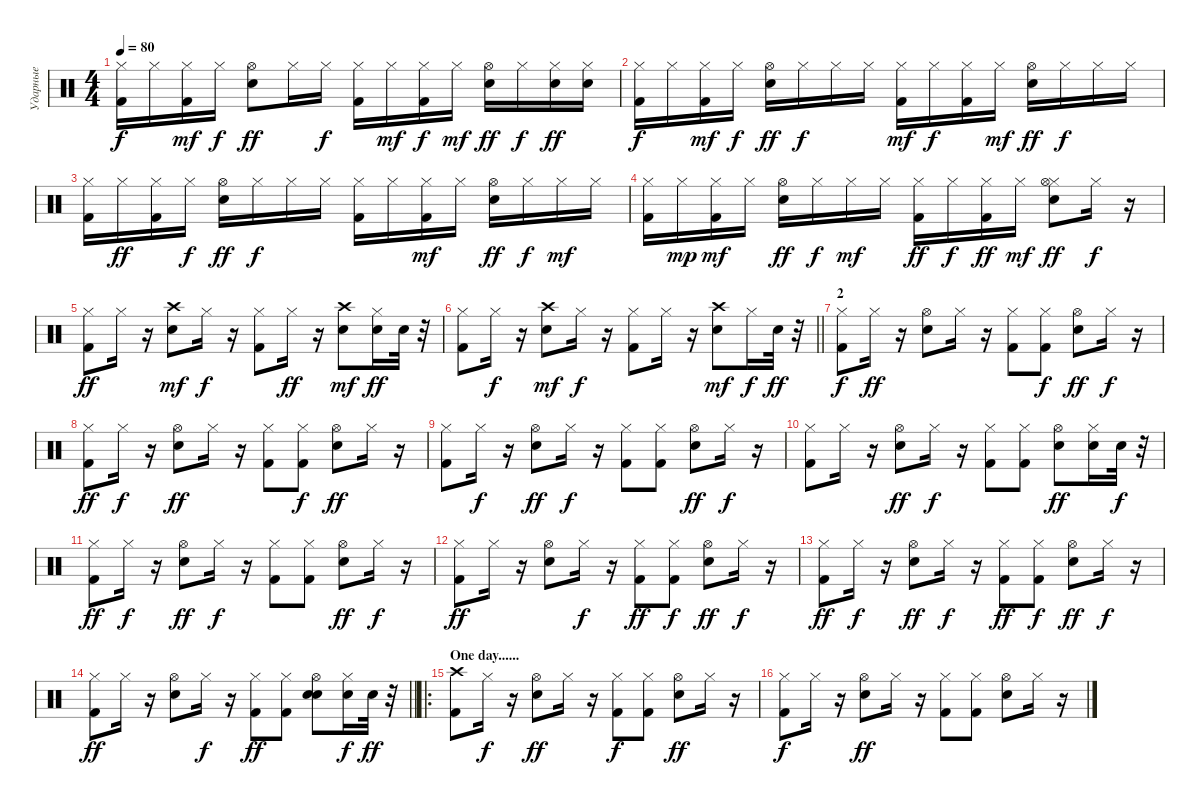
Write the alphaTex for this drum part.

\track ("Ударные" "Ударные") {instrument percussion}
\staff {score}
\articulation defaults
\ts (4 4)
\tempo 80
\clef neutral
\ks c
("Kick (hit) 2" "Hi-Hat (closed)").16{dy f} "Hi-Hat (closed)".16 ("Kick (hit) 2" "Hi-Hat (closed)").16{dy mf} "Hi-Hat (closed)".16{dy f} ("Electric Snare (hit)" "Hi-Hat (open)").8{dy ff} "Hi-Hat (closed)".16 "Hi-Hat (closed)".16{dy f} ("Kick (hit) 2" "Hi-Hat (closed)").16 "Hi-Hat (closed)".16{dy mf} ("Kick (hit) 2" "Hi-Hat (closed)").16{dy f} "Hi-Hat (closed)".16{dy mf} ("Electric Snare (hit)" "Hi-Hat (open)").16{dy ff} "Hi-Hat (closed)".16{dy f} ("Hi-Hat (closed)" "Electric Snare (hit)").16{dy ff} ("Hi-Hat (closed)" "Electric Snare (hit)").16 |
("Kick (hit) 2" "Hi-Hat (closed)").16{dy f} "Hi-Hat (closed)".16 ("Kick (hit) 2" "Hi-Hat (closed)").16{dy mf} "Hi-Hat (closed)".16{dy f} ("Electric Snare (hit)" "Hi-Hat (open)").16{dy ff} "Hi-Hat (closed)".16{dy f} "Hi-Hat (closed)".16 "Hi-Hat (closed)".16 ("Kick (hit) 2" "Hi-Hat (closed)").16{dy mf} "Hi-Hat (closed)".16{dy f} ("Kick (hit) 2" "Hi-Hat (closed)").16 "Hi-Hat (closed)".16{dy mf} ("Electric Snare (hit)" "Hi-Hat (open)").16{dy ff} "Hi-Hat (closed)".16{dy f} "Hi-Hat (closed)".16 "Hi-Hat (closed)".16 |
("Kick (hit) 2" "Hi-Hat (closed)").16 "Hi-Hat (closed)".16{dy ff} ("Kick (hit) 2" "Hi-Hat (closed)").16 "Hi-Hat (closed)".16{dy f} ("Electric Snare (hit)" "Hi-Hat (open)").16{dy ff} "Hi-Hat (closed)".16{dy f} "Hi-Hat (closed)".16 "Hi-Hat (closed)".16 ("Kick (hit) 2" "Hi-Hat (closed)").16 "Hi-Hat (closed)".16 ("Kick (hit) 2" "Hi-Hat (closed)").16{dy mf} "Hi-Hat (closed)".16 ("Electric Snare (hit)" "Hi-Hat (open)").16{dy ff} "Hi-Hat (closed)".16{dy f} "Hi-Hat (closed)".16{dy mf} "Hi-Hat (closed)".16 |
("Kick (hit) 2" "Hi-Hat (closed)").16 "Hi-Hat (closed)".16{dy mp} ("Kick (hit) 2" "Hi-Hat (closed)").16{dy mf} "Hi-Hat (closed)".16 ("Electric Snare (hit)" "Hi-Hat (open)").16{dy ff} "Hi-Hat (closed)".16{dy f} "Hi-Hat (closed)".16{dy mf} "Hi-Hat (closed)".16 ("Kick (hit) 2" "Hi-Hat (closed)").16{dy ff} "Hi-Hat (closed)".16{dy f} ("Kick (hit) 2" "Hi-Hat (closed)").16{dy ff} "Hi-Hat (closed)".16{dy mf} ("Electric Snare (hit)" "Hi-Hat (closed)" "Hi-Hat (open)").8{dy ff} "Hi-Hat (closed)".16{dy f} r.16 |
("Kick (hit) 2" "Hi-Hat (closed)").8{dy ff} "Hi-Hat (closed)".16 r.16 ("Electric Snare (hit)" "Crash high (hit)").8{dy mf} "Hi-Hat (closed)".16{dy f} r.16 ("Kick (hit) 2" "Hi-Hat (closed)").8 "Hi-Hat (closed)".16{dy ff} r.16 ("Electric Snare (hit)" "Crash high (hit)").8{dy mf} ("Hi-Hat (closed)" "Electric Snare (hit)").16{dy ff} "Electric Snare (hit)".32 r.32 |
\barLineRight lightlight
("Kick (hit) 2" "Hi-Hat (closed)").8 "Hi-Hat (closed)".16{dy f} r.16 ("Electric Snare (hit)" "Crash high (hit)").8{dy mf} "Hi-Hat (closed)".16{dy f} r.16 ("Kick (hit) 2" "Hi-Hat (closed)").8 "Hi-Hat (closed)".16 r.16 ("Electric Snare (hit)" "Crash high (hit)").8{dy mf} "Hi-Hat (closed)".16{dy f} "Electric Snare (hit)".32{dy ff} r.32 |
\section ("" "2")
("Kick (hit) 2" "Hi-Hat (closed)").8{dy f} "Hi-Hat (closed)".16{dy ff} r.16 ("Electric Snare (hit)" "Hi-Hat (open)").8 "Hi-Hat (closed)".16 r.16 ("Kick (hit) 2" "Hi-Hat (closed)").8 ("Kick (hit) 2" "Hi-Hat (closed)").8{dy f} ("Electric Snare (hit)" "Hi-Hat (open)").8{dy ff} "Hi-Hat (closed)".16{dy f} r.16 |
("Kick (hit) 2" "Hi-Hat (closed)").8{dy ff} "Hi-Hat (closed)".16{dy f} r.16 ("Electric Snare (hit)" "Hi-Hat (open)").8{dy ff} "Hi-Hat (closed)".16 r.16 ("Kick (hit) 2" "Hi-Hat (closed)").8 ("Kick (hit) 2" "Hi-Hat (closed)").8{dy f} ("Electric Snare (hit)" "Hi-Hat (open)").8{dy ff} "Hi-Hat (closed)".16 r.16 |
("Kick (hit) 2" "Hi-Hat (closed)").8 "Hi-Hat (closed)".16{dy f} r.16 ("Electric Snare (hit)" "Hi-Hat (open)").8{dy ff} "Hi-Hat (closed)".16{dy f} r.16 ("Kick (hit) 2" "Hi-Hat (closed)").8 ("Kick (hit) 2" "Hi-Hat (closed)").8 ("Electric Snare (hit)" "Hi-Hat (open)").8{dy ff} "Hi-Hat (closed)".16{dy f} r.16 |
("Kick (hit) 2" "Hi-Hat (closed)").8 "Hi-Hat (closed)".16 r.16 ("Electric Snare (hit)" "Hi-Hat (open)").8{dy ff} "Hi-Hat (closed)".16{dy f} r.16 ("Kick (hit) 2" "Hi-Hat (closed)").8 ("Kick (hit) 2" "Hi-Hat (closed)").8 ("Electric Snare (hit)" "Hi-Hat (open)").8{dy ff} ("Hi-Hat (closed)" "Electric Snare (hit)").16 "Electric Snare (hit)".32{dy f} r.32 |
("Kick (hit) 2" "Hi-Hat (closed)").8{dy ff} "Hi-Hat (closed)".16{dy f} r.16 ("Electric Snare (hit)" "Hi-Hat (open)").8{dy ff} "Hi-Hat (closed)".16{dy f} r.16 ("Kick (hit) 2" "Hi-Hat (closed)").8 ("Kick (hit) 2" "Hi-Hat (closed)").8 ("Electric Snare (hit)" "Hi-Hat (open)").8{dy ff} "Hi-Hat (closed)".16{dy f} r.16 |
("Kick (hit) 2" "Hi-Hat (closed)").8{dy ff} "Hi-Hat (closed)".16 r.16 ("Electric Snare (hit)" "Hi-Hat (open)").8 "Hi-Hat (closed)".16{dy f} r.16 ("Kick (hit) 2" "Hi-Hat (closed)").8{dy ff} ("Kick (hit) 2" "Hi-Hat (closed)").8{dy f} ("Electric Snare (hit)" "Hi-Hat (open)").8{dy ff} "Hi-Hat (closed)".16{dy f} r.16 |
("Kick (hit) 2" "Hi-Hat (closed)").8{dy ff} "Hi-Hat (closed)".16{dy f} r.16 ("Electric Snare (hit)" "Hi-Hat (open)").8{dy ff} "Hi-Hat (closed)".16{dy f} r.16 ("Kick (hit) 2" "Hi-Hat (closed)").8{dy ff} ("Kick (hit) 2" "Hi-Hat (closed)").8{dy f} ("Electric Snare (hit)" "Hi-Hat (open)").8{dy ff} "Hi-Hat (closed)".16{dy f} r.16 |
\barLineRight lightlight
("Kick (hit) 2" "Hi-Hat (closed)").8{dy ff} "Hi-Hat (closed)".16 r.16 ("Electric Snare (hit)" "Hi-Hat (open)").8 "Hi-Hat (closed)".16{dy f} r.16 ("Kick (hit) 2" "Hi-Hat (closed)").8{dy ff} ("Kick (hit) 2" "Hi-Hat (closed)").8 ("Electric Snare (hit)" "Hi-Hat (open)" "Electric Snare (hit)").8 ("Hi-Hat (closed)" "Electric Snare (hit)").16{dy f} "Electric Snare (hit)".32{dy ff} r.32 |
\ro
\section ("" "One day......")
("Kick (hit) 2" "Crash high (hit)").8 "Hi-Hat (closed)".16{dy f} r.16 ("Electric Snare (hit)" "Hi-Hat (open)").8{dy ff} "Hi-Hat (closed)".16 r.16 ("Kick (hit) 2" "Hi-Hat (closed)").8{dy f} ("Kick (hit) 2" "Hi-Hat (closed)").8 ("Electric Snare (hit)" "Hi-Hat (open)").8{dy ff} "Hi-Hat (closed)".16 r.16 |
("Kick (hit) 2" "Hi-Hat (closed)").8{dy f} "Hi-Hat (closed)".16 r.16 ("Electric Snare (hit)" "Hi-Hat (open)").8{dy ff} "Hi-Hat (closed)".16 r.16 ("Kick (hit) 2" "Hi-Hat (closed)").8 ("Kick (hit) 2" "Hi-Hat (closed)").8 ("Electric Snare (hit)" "Hi-Hat (open)").8 "Hi-Hat (closed)".16 r.16
